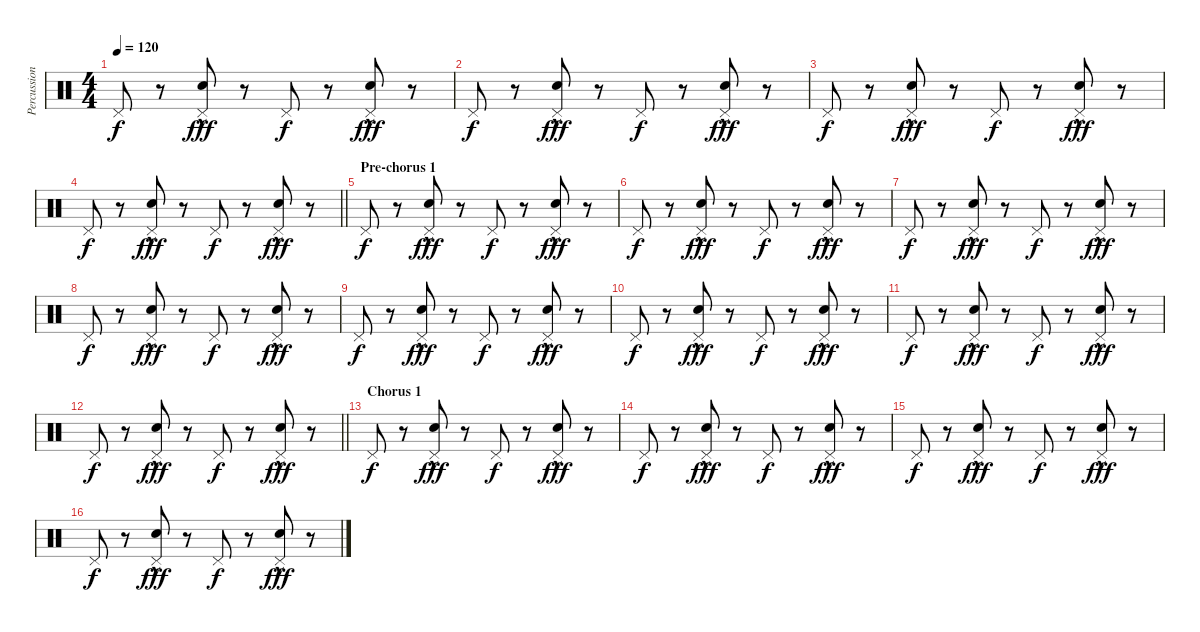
\track ("Percussion" "Percussion") {instrument percussion}
\staff {score}
\articulation defaults
\ts (4 4)
\tempo 120
\clef neutral
\ks c "Pedal Hi-Hat (hit)".8{dy f}
r.8 ("Snare (hit) 2"{hac} "Pedal Hi-Hat (hit)").8{dy fff} r.8 "Pedal Hi-Hat (hit)".8{dy f} r.8 ("Snare (hit) 2"{hac} "Pedal Hi-Hat (hit)").8{dy fff} r.8 |
"Pedal Hi-Hat (hit)".8{dy f} r.8 ("Snare (hit) 2"{hac} "Pedal Hi-Hat (hit)").8{dy fff} r.8 "Pedal Hi-Hat (hit)".8{dy f} r.8 ("Snare (hit) 2"{hac} "Pedal Hi-Hat (hit)").8{dy fff} r.8 |
"Pedal Hi-Hat (hit)".8{dy f} r.8 ("Snare (hit) 2"{hac} "Pedal Hi-Hat (hit)").8{dy fff} r.8 "Pedal Hi-Hat (hit)".8{dy f} r.8 ("Snare (hit) 2"{hac} "Pedal Hi-Hat (hit)").8{dy fff} r.8 |
\barLineRight lightlight "Pedal Hi-Hat (hit)".8{dy f}
r.8 ("Snare (hit) 2"{hac} "Pedal Hi-Hat (hit)").8{dy fff} r.8 "Pedal Hi-Hat (hit)".8{dy f} r.8 ("Snare (hit) 2"{hac} "Pedal Hi-Hat (hit)").8{dy fff} r.8 |
\section ("" "Pre-chorus 1")
"Pedal Hi-Hat (hit)".8{dy f} r.8 ("Snare (hit) 2"{hac} "Pedal Hi-Hat (hit)").8{dy fff} r.8 "Pedal Hi-Hat (hit)".8{dy f} r.8 ("Snare (hit) 2"{hac} "Pedal Hi-Hat (hit)").8{dy fff} r.8 |
"Pedal Hi-Hat (hit)".8{dy f} r.8 ("Snare (hit) 2"{hac} "Pedal Hi-Hat (hit)").8{dy fff} r.8 "Pedal Hi-Hat (hit)".8{dy f} r.8 ("Snare (hit) 2"{hac} "Pedal Hi-Hat (hit)").8{dy fff} r.8 |
"Pedal Hi-Hat (hit)".8{dy f} r.8 ("Snare (hit) 2"{hac} "Pedal Hi-Hat (hit)").8{dy fff} r.8 "Pedal Hi-Hat (hit)".8{dy f} r.8 ("Snare (hit) 2"{hac} "Pedal Hi-Hat (hit)").8{dy fff} r.8 |
"Pedal Hi-Hat (hit)".8{dy f} r.8 ("Snare (hit) 2"{hac} "Pedal Hi-Hat (hit)").8{dy fff} r.8 "Pedal Hi-Hat (hit)".8{dy f} r.8 ("Snare (hit) 2"{hac} "Pedal Hi-Hat (hit)").8{dy fff} r.8 |
"Pedal Hi-Hat (hit)".8{dy f} r.8 ("Snare (hit) 2"{hac} "Pedal Hi-Hat (hit)").8{dy fff} r.8 "Pedal Hi-Hat (hit)".8{dy f} r.8 ("Snare (hit) 2"{hac} "Pedal Hi-Hat (hit)").8{dy fff} r.8 |
"Pedal Hi-Hat (hit)".8{dy f} r.8 ("Snare (hit) 2"{hac} "Pedal Hi-Hat (hit)").8{dy fff} r.8 "Pedal Hi-Hat (hit)".8{dy f} r.8 ("Snare (hit) 2"{hac} "Pedal Hi-Hat (hit)").8{dy fff} r.8 |
"Pedal Hi-Hat (hit)".8{dy f} r.8 ("Snare (hit) 2"{hac} "Pedal Hi-Hat (hit)").8{dy fff} r.8 "Pedal Hi-Hat (hit)".8{dy f} r.8 ("Snare (hit) 2"{hac} "Pedal Hi-Hat (hit)").8{dy fff} r.8 |
\barLineRight lightlight "Pedal Hi-Hat (hit)".8{dy f}
r.8 ("Snare (hit) 2"{hac} "Pedal Hi-Hat (hit)").8{dy fff} r.8 "Pedal Hi-Hat (hit)".8{dy f} r.8 ("Snare (hit) 2"{hac} "Pedal Hi-Hat (hit)").8{dy fff} r.8 |
\section ("" "Chorus 1")
"Pedal Hi-Hat (hit)".8{dy f} r.8 ("Snare (hit) 2"{hac} "Pedal Hi-Hat (hit)").8{dy fff} r.8 "Pedal Hi-Hat (hit)".8{dy f} r.8 ("Snare (hit) 2"{hac} "Pedal Hi-Hat (hit)").8{dy fff} r.8 |
"Pedal Hi-Hat (hit)".8{dy f} r.8 ("Snare (hit) 2"{hac} "Pedal Hi-Hat (hit)").8{dy fff} r.8 "Pedal Hi-Hat (hit)".8{dy f} r.8 ("Snare (hit) 2"{hac} "Pedal Hi-Hat (hit)").8{dy fff} r.8 |
"Pedal Hi-Hat (hit)".8{dy f} r.8 ("Snare (hit) 2"{hac} "Pedal Hi-Hat (hit)").8{dy fff} r.8 "Pedal Hi-Hat (hit)".8{dy f} r.8 ("Snare (hit) 2"{hac} "Pedal Hi-Hat (hit)").8{dy fff} r.8 |
"Pedal Hi-Hat (hit)".8{dy f} r.8 ("Snare (hit) 2"{hac} "Pedal Hi-Hat (hit)").8{dy fff} r.8 "Pedal Hi-Hat (hit)".8{dy f} r.8 ("Snare (hit) 2"{hac} "Pedal Hi-Hat (hit)").8{dy fff} r.8
